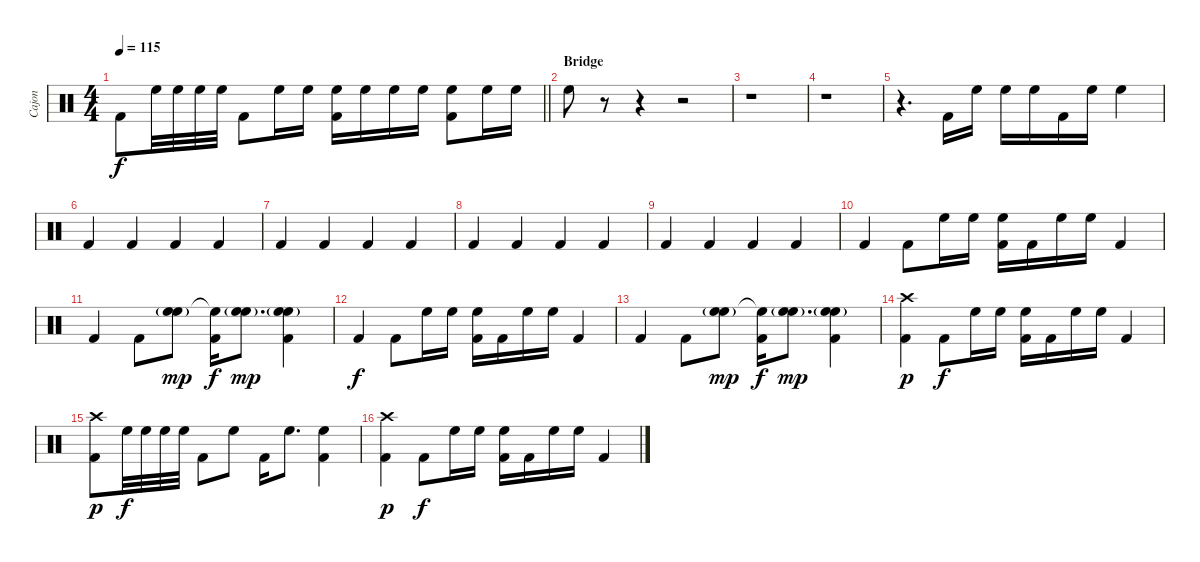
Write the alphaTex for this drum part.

\track ("Cajon" "Cajon") {instrument percussion}
\staff {score}
\articulation defaults
\ts (4 4)
\tempo 115
\clef neutral
\barLineRight lightlight
\ks c "Kick (hit) 2".8{dy f} "High Floor Tom (hit)".32 "High Floor Tom (hit)".32 "High Floor Tom (hit)".32 "High Floor Tom (hit)".32 "Kick (hit) 2".8 "High Floor Tom (hit)".16 "High Floor Tom (hit)".16
("High Floor Tom (hit)" "Kick (hit) 2").16 "High Floor Tom (hit)".16 "High Floor Tom (hit)".16 "High Floor Tom (hit)".16 ("High Floor Tom (hit)" "Kick (hit) 2").8 "High Floor Tom (hit)".16 "High Floor Tom (hit)".16 |
\section ("" "Bridge")
"High Floor Tom (hit)".8 r.8 r.4 r.2 |
r.1 |
r.1 |
r.4{d} "Kick (hit) 2".16 "High Floor Tom (hit)".16 "High Floor Tom (hit)".16 "High Floor Tom (hit)".16 "Kick (hit) 2".16 "High Floor Tom (hit)".16 "High Floor Tom (hit)".4 |
"Kick (hit) 2".4 "Kick (hit) 2".4 "Kick (hit) 2".4 "Kick (hit) 2".4 |
"Kick (hit) 2".4 "Kick (hit) 2".4 "Kick (hit) 2".4 "Kick (hit) 2".4 |
"Kick (hit) 2".4 "Kick (hit) 2".4 "Kick (hit) 2".4 "Kick (hit) 2".4 |
"Kick (hit) 2".4 "Kick (hit) 2".4 "Kick (hit) 2".4 "Kick (hit) 2".4 |
"Kick (hit) 2".4 "Kick (hit) 2".8 "High Floor Tom (hit)".16 "High Floor Tom (hit)".16 ("High Floor Tom (hit)" "Kick (hit) 2").16 "Kick (hit) 2".16 "High Floor Tom (hit)".16 "High Floor Tom (hit)".16 "Kick (hit) 2".4 |
"Kick (hit) 2".4 "Kick (hit) 2".8 ("High Floor Tom (hit)"{g} "High Floor Tom (hit)").8{dy mp} ("High Floor Tom (hit)"{t} "Kick (hit) 2").16{dy f} ("High Floor Tom (hit)"{g} "High Floor Tom (hit)").8{d dy mp} ("High Floor Tom (hit)"{g} "High Floor Tom (hit)" "Kick (hit) 2").4 |
"Kick (hit) 2".4{dy f} "Kick (hit) 2".8 "High Floor Tom (hit)".16 "High Floor Tom (hit)".16 ("High Floor Tom (hit)" "Kick (hit) 2").16 "Kick (hit) 2".16 "High Floor Tom (hit)".16 "High Floor Tom (hit)".16 "Kick (hit) 2".4 |
"Kick (hit) 2".4 "Kick (hit) 2".8 ("High Floor Tom (hit)"{g} "High Floor Tom (hit)").8{dy mp} ("High Floor Tom (hit)"{t} "Kick (hit) 2").16{dy f} ("High Floor Tom (hit)"{g} "High Floor Tom (hit)").8{d dy mp} ("High Floor Tom (hit)"{g} "High Floor Tom (hit)" "Kick (hit) 2").4 |
("Crash high (hit)" "Kick (hit) 2").4{dy p} "Kick (hit) 2".8{dy f} "High Floor Tom (hit)".16 "High Floor Tom (hit)".16 ("High Floor Tom (hit)" "Kick (hit) 2").16 "Kick (hit) 2".16 "High Floor Tom (hit)".16 "High Floor Tom (hit)".16 "Kick (hit) 2".4 |
("Crash high (hit)" "Kick (hit) 2").8{dy p} "High Floor Tom (hit)".32{dy f} "High Floor Tom (hit)".32 "High Floor Tom (hit)".32 "High Floor Tom (hit)".32 "Kick (hit) 2".8 "High Floor Tom (hit)".8 "Kick (hit) 2".16 "High Floor Tom (hit)".8{d} ("High Floor Tom (hit)" "Kick (hit) 2").4 |
("Crash high (hit)" "Kick (hit) 2").4{dy p} "Kick (hit) 2".8{dy f} "High Floor Tom (hit)".16 "High Floor Tom (hit)".16 ("High Floor Tom (hit)" "Kick (hit) 2").16 "Kick (hit) 2".16 "High Floor Tom (hit)".16 "High Floor Tom (hit)".16 "Kick (hit) 2".4
